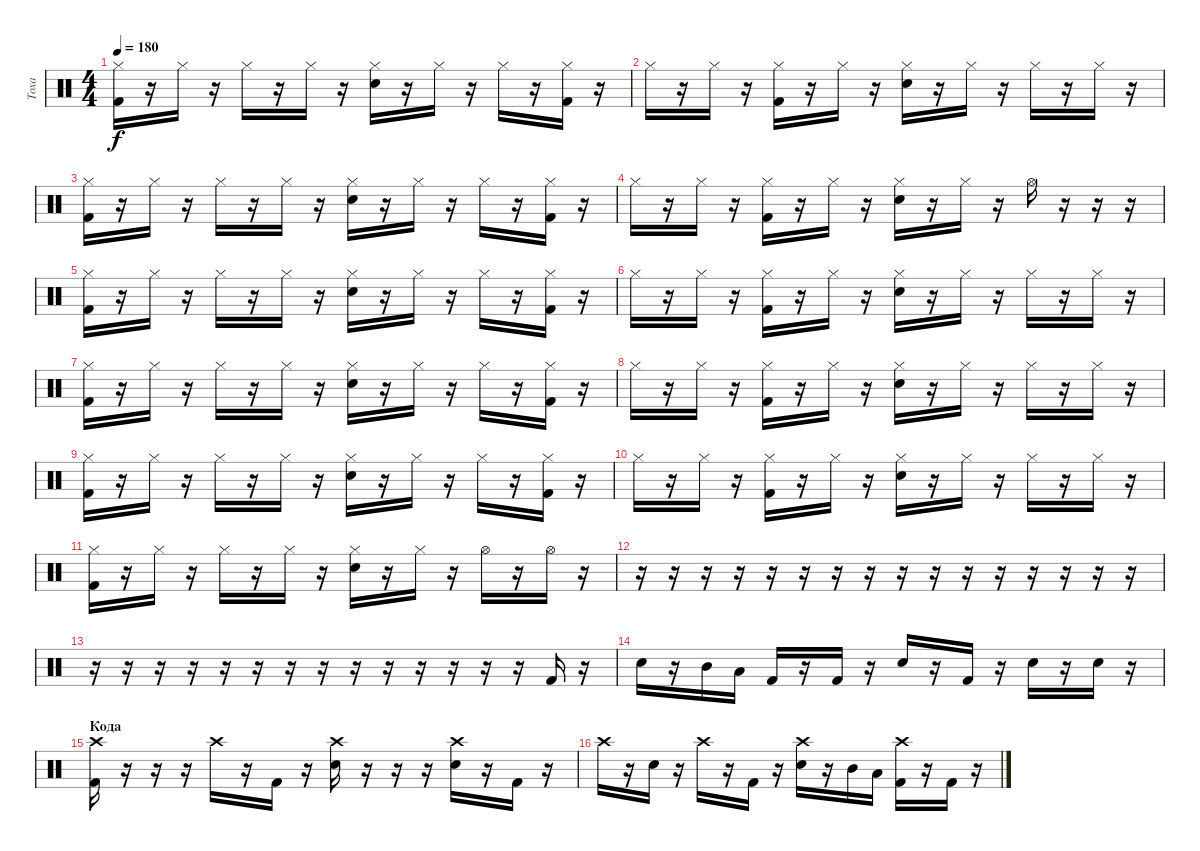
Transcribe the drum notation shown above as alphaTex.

\track ("Тоха" "Тоха") {instrument percussion}
\staff {score}
\articulation defaults
\ts (4 4)
\tempo 180
\clef neutral
\ks c
("Hi-Hat (closed)" "Kick (hit) 2").16{dy f} r.16 "Hi-Hat (closed)".16 r.16 "Hi-Hat (closed)".16 r.16 "Hi-Hat (closed)".16 r.16 ("Hi-Hat (closed)" "Electric Snare (hit)").16 r.16 "Hi-Hat (closed)".16 r.16 "Hi-Hat (closed)".16 r.16 ("Hi-Hat (closed)" "Kick (hit) 2").16 r.16 |
"Hi-Hat (closed)".16 r.16 "Hi-Hat (closed)".16 r.16 ("Hi-Hat (closed)" "Kick (hit) 2").16 r.16 "Hi-Hat (closed)".16 r.16 ("Hi-Hat (closed)" "Electric Snare (hit)").16 r.16 "Hi-Hat (closed)".16 r.16 "Hi-Hat (closed)".16 r.16 "Hi-Hat (closed)".16 r.16 |
("Hi-Hat (closed)" "Kick (hit) 2").16 r.16 "Hi-Hat (closed)".16 r.16 "Hi-Hat (closed)".16 r.16 "Hi-Hat (closed)".16 r.16 ("Hi-Hat (closed)" "Electric Snare (hit)").16 r.16 "Hi-Hat (closed)".16 r.16 "Hi-Hat (closed)".16 r.16 ("Hi-Hat (closed)" "Kick (hit) 2").16 r.16 |
"Hi-Hat (closed)".16 r.16 "Hi-Hat (closed)".16 r.16 ("Hi-Hat (closed)" "Kick (hit) 2").16 r.16 "Hi-Hat (closed)".16 r.16 ("Hi-Hat (closed)" "Electric Snare (hit)").16 r.16 "Hi-Hat (closed)".16 r.16 "Hi-Hat (open)".16 r.16 r.16 r.16 |
("Hi-Hat (closed)" "Kick (hit) 2").16 r.16 "Hi-Hat (closed)".16 r.16 "Hi-Hat (closed)".16 r.16 "Hi-Hat (closed)".16 r.16 ("Hi-Hat (closed)" "Electric Snare (hit)").16 r.16 "Hi-Hat (closed)".16 r.16 "Hi-Hat (closed)".16 r.16 ("Hi-Hat (closed)" "Kick (hit) 2").16 r.16 |
"Hi-Hat (closed)".16 r.16 "Hi-Hat (closed)".16 r.16 ("Hi-Hat (closed)" "Kick (hit) 2").16 r.16 "Hi-Hat (closed)".16 r.16 ("Hi-Hat (closed)" "Electric Snare (hit)").16 r.16 "Hi-Hat (closed)".16 r.16 "Hi-Hat (closed)".16 r.16 "Hi-Hat (closed)".16 r.16 |
("Hi-Hat (closed)" "Kick (hit) 2").16 r.16 "Hi-Hat (closed)".16 r.16 "Hi-Hat (closed)".16 r.16 "Hi-Hat (closed)".16 r.16 ("Hi-Hat (closed)" "Electric Snare (hit)").16 r.16 "Hi-Hat (closed)".16 r.16 "Hi-Hat (closed)".16 r.16 ("Hi-Hat (closed)" "Kick (hit) 2").16 r.16 |
"Hi-Hat (closed)".16 r.16 "Hi-Hat (closed)".16 r.16 ("Hi-Hat (closed)" "Kick (hit) 2").16 r.16 "Hi-Hat (closed)".16 r.16 ("Hi-Hat (closed)" "Electric Snare (hit)").16 r.16 "Hi-Hat (closed)".16 r.16 "Hi-Hat (closed)".16 r.16 "Hi-Hat (closed)".16 r.16 |
("Hi-Hat (closed)" "Kick (hit) 2").16 r.16 "Hi-Hat (closed)".16 r.16 "Hi-Hat (closed)".16 r.16 "Hi-Hat (closed)".16 r.16 ("Hi-Hat (closed)" "Electric Snare (hit)").16 r.16 "Hi-Hat (closed)".16 r.16 "Hi-Hat (closed)".16 r.16 ("Hi-Hat (closed)" "Kick (hit) 2").16 r.16 |
"Hi-Hat (closed)".16 r.16 "Hi-Hat (closed)".16 r.16 ("Hi-Hat (closed)" "Kick (hit) 2").16 r.16 "Hi-Hat (closed)".16 r.16 ("Hi-Hat (closed)" "Electric Snare (hit)").16 r.16 "Hi-Hat (closed)".16 r.16 "Hi-Hat (closed)".16 r.16 "Hi-Hat (closed)".16 r.16 |
("Hi-Hat (closed)" "Kick (hit) 2").16 r.16 "Hi-Hat (closed)".16 r.16 "Hi-Hat (closed)".16 r.16 "Hi-Hat (closed)".16 r.16 ("Hi-Hat (closed)" "Electric Snare (hit)").16 r.16 "Hi-Hat (closed)".16 r.16 "Hi-Hat (open)".16 r.16 "Hi-Hat (open)".16 r.16 |
r.16 r.16 r.16 r.16 r.16 r.16 r.16 r.16 r.16 r.16 r.16 r.16 r.16 r.16 r.16 r.16 |
r.16 r.16 r.16 r.16 r.16 r.16 r.16 r.16 r.16 r.16 r.16 r.16 r.16 r.16 "Kick (hit) 2".16 r.16 |
"Electric Snare (hit)".16 r.16 "Mid Tom (hit)".16 "Low Tom (hit)".16 "Kick (hit) 2".16 r.16 "Kick (hit) 2".16 r.16 "Electric Snare (hit)".16 r.16 "Kick (hit) 2".16 r.16 "Electric Snare (hit)".16 r.16 "Electric Snare (hit)".16 r.16 |
\section ("" "Кода")
("Crash high (hit)" "Kick (hit) 2").16 r.16 r.16 r.16 "Crash high (hit)".16 r.16 "Kick (hit) 2".16 r.16 ("Crash high (hit)" "Electric Snare (hit)").16 r.16 r.16 r.16 ("Crash high (hit)" "Electric Snare (hit)").16 r.16 "Kick (hit) 2".16 r.16 |
"Crash high (hit)".16 r.16 "Electric Snare (hit)".16 r.16 "Crash high (hit)".16 r.16 "Kick (hit) 2".16 r.16 ("Crash high (hit)" "Electric Snare (hit)").16 r.16 "Mid Tom (hit)".16 "Low Tom (hit)".16 ("Crash high (hit)" "Kick (hit) 2").16 r.16 "Kick (hit) 2".16 r.16
